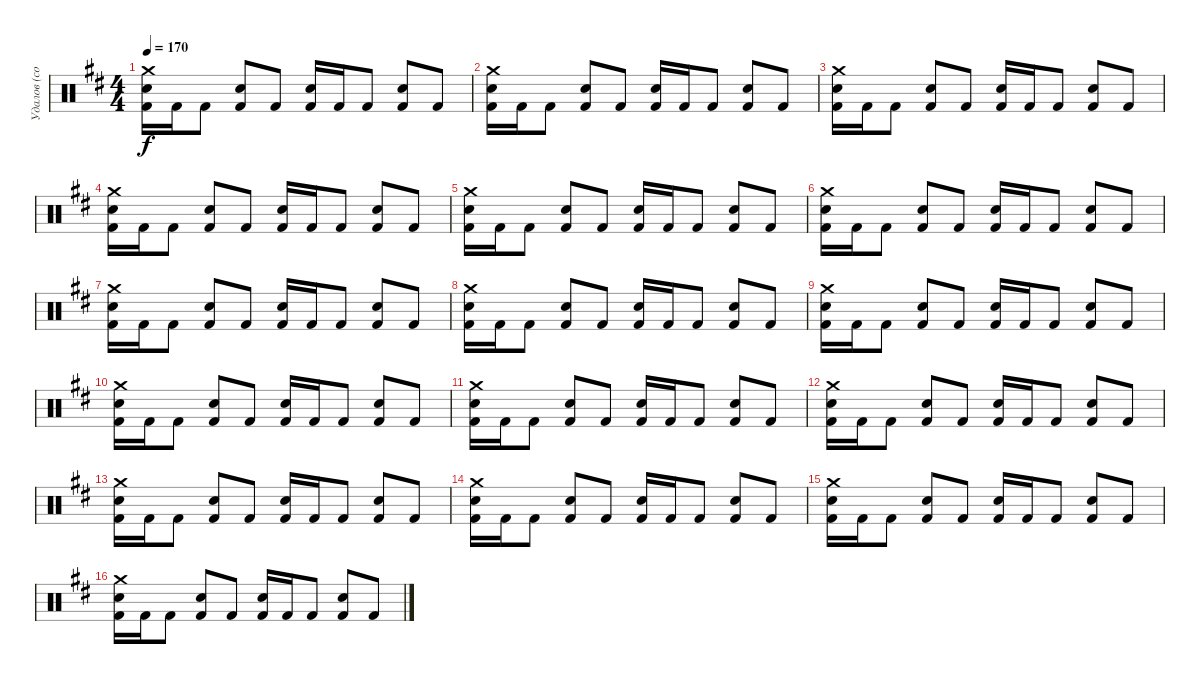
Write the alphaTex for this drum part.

\track ("Удалов (сорри за ударные)" "Удалов (со") {instrument percussion}
\staff {score}
\articulation defaults
\ts (4 4)
\tempo 170
\clef neutral
\ks d
("Crash medium (hit)" "Snare (hit) 2" "Kick (hit) 2").16{dy f} "Kick (hit) 2".16 "Kick (hit) 2".8 ("Snare (hit) 2" "Kick (hit) 2").8 "Kick (hit) 2".8 ("Snare (hit) 2" "Kick (hit) 2").16 "Kick (hit) 2".16 "Kick (hit) 2".8 ("Snare (hit) 2" "Kick (hit) 2").8 "Kick (hit) 2".8 |
("Crash medium (hit)" "Snare (hit) 2" "Kick (hit) 2").16 "Kick (hit) 2".16 "Kick (hit) 2".8 ("Snare (hit) 2" "Kick (hit) 2").8 "Kick (hit) 2".8 ("Snare (hit) 2" "Kick (hit) 2").16 "Kick (hit) 2".16 "Kick (hit) 2".8 ("Snare (hit) 2" "Kick (hit) 2").8 "Kick (hit) 2".8 |
("Crash medium (hit)" "Snare (hit) 2" "Kick (hit) 2").16 "Kick (hit) 2".16 "Kick (hit) 2".8 ("Snare (hit) 2" "Kick (hit) 2").8 "Kick (hit) 2".8 ("Snare (hit) 2" "Kick (hit) 2").16 "Kick (hit) 2".16 "Kick (hit) 2".8 ("Snare (hit) 2" "Kick (hit) 2").8 "Kick (hit) 2".8 |
("Crash medium (hit)" "Snare (hit) 2" "Kick (hit) 2").16 "Kick (hit) 2".16 "Kick (hit) 2".8 ("Snare (hit) 2" "Kick (hit) 2").8 "Kick (hit) 2".8 ("Snare (hit) 2" "Kick (hit) 2").16 "Kick (hit) 2".16 "Kick (hit) 2".8 ("Snare (hit) 2" "Kick (hit) 2").8 "Kick (hit) 2".8 |
("Crash medium (hit)" "Snare (hit) 2" "Kick (hit) 2").16 "Kick (hit) 2".16 "Kick (hit) 2".8 ("Snare (hit) 2" "Kick (hit) 2").8 "Kick (hit) 2".8 ("Snare (hit) 2" "Kick (hit) 2").16 "Kick (hit) 2".16 "Kick (hit) 2".8 ("Snare (hit) 2" "Kick (hit) 2").8 "Kick (hit) 2".8 |
("Crash medium (hit)" "Snare (hit) 2" "Kick (hit) 2").16 "Kick (hit) 2".16 "Kick (hit) 2".8 ("Snare (hit) 2" "Kick (hit) 2").8 "Kick (hit) 2".8 ("Snare (hit) 2" "Kick (hit) 2").16 "Kick (hit) 2".16 "Kick (hit) 2".8 ("Snare (hit) 2" "Kick (hit) 2").8 "Kick (hit) 2".8 |
("Crash medium (hit)" "Snare (hit) 2" "Kick (hit) 2").16 "Kick (hit) 2".16 "Kick (hit) 2".8 ("Snare (hit) 2" "Kick (hit) 2").8 "Kick (hit) 2".8 ("Snare (hit) 2" "Kick (hit) 2").16 "Kick (hit) 2".16 "Kick (hit) 2".8 ("Snare (hit) 2" "Kick (hit) 2").8 "Kick (hit) 2".8 |
("Crash medium (hit)" "Snare (hit) 2" "Kick (hit) 2").16 "Kick (hit) 2".16 "Kick (hit) 2".8 ("Snare (hit) 2" "Kick (hit) 2").8 "Kick (hit) 2".8 ("Snare (hit) 2" "Kick (hit) 2").16 "Kick (hit) 2".16 "Kick (hit) 2".8 ("Snare (hit) 2" "Kick (hit) 2").8 "Kick (hit) 2".8 |
("Crash medium (hit)" "Snare (hit) 2" "Kick (hit) 2").16 "Kick (hit) 2".16 "Kick (hit) 2".8 ("Snare (hit) 2" "Kick (hit) 2").8 "Kick (hit) 2".8 ("Snare (hit) 2" "Kick (hit) 2").16 "Kick (hit) 2".16 "Kick (hit) 2".8 ("Snare (hit) 2" "Kick (hit) 2").8 "Kick (hit) 2".8 |
("Crash medium (hit)" "Snare (hit) 2" "Kick (hit) 2").16 "Kick (hit) 2".16 "Kick (hit) 2".8 ("Snare (hit) 2" "Kick (hit) 2").8 "Kick (hit) 2".8 ("Snare (hit) 2" "Kick (hit) 2").16 "Kick (hit) 2".16 "Kick (hit) 2".8 ("Snare (hit) 2" "Kick (hit) 2").8 "Kick (hit) 2".8 |
("Crash medium (hit)" "Snare (hit) 2" "Kick (hit) 2").16 "Kick (hit) 2".16 "Kick (hit) 2".8 ("Snare (hit) 2" "Kick (hit) 2").8 "Kick (hit) 2".8 ("Snare (hit) 2" "Kick (hit) 2").16 "Kick (hit) 2".16 "Kick (hit) 2".8 ("Snare (hit) 2" "Kick (hit) 2").8 "Kick (hit) 2".8 |
("Crash medium (hit)" "Snare (hit) 2" "Kick (hit) 2").16 "Kick (hit) 2".16 "Kick (hit) 2".8 ("Snare (hit) 2" "Kick (hit) 2").8 "Kick (hit) 2".8 ("Snare (hit) 2" "Kick (hit) 2").16 "Kick (hit) 2".16 "Kick (hit) 2".8 ("Snare (hit) 2" "Kick (hit) 2").8 "Kick (hit) 2".8 |
("Crash medium (hit)" "Snare (hit) 2" "Kick (hit) 2").16 "Kick (hit) 2".16 "Kick (hit) 2".8 ("Snare (hit) 2" "Kick (hit) 2").8 "Kick (hit) 2".8 ("Snare (hit) 2" "Kick (hit) 2").16 "Kick (hit) 2".16 "Kick (hit) 2".8 ("Snare (hit) 2" "Kick (hit) 2").8 "Kick (hit) 2".8 |
("Crash medium (hit)" "Snare (hit) 2" "Kick (hit) 2").16 "Kick (hit) 2".16 "Kick (hit) 2".8 ("Snare (hit) 2" "Kick (hit) 2").8 "Kick (hit) 2".8 ("Snare (hit) 2" "Kick (hit) 2").16 "Kick (hit) 2".16 "Kick (hit) 2".8 ("Snare (hit) 2" "Kick (hit) 2").8 "Kick (hit) 2".8 |
("Crash medium (hit)" "Snare (hit) 2" "Kick (hit) 2").16 "Kick (hit) 2".16 "Kick (hit) 2".8 ("Snare (hit) 2" "Kick (hit) 2").8 "Kick (hit) 2".8 ("Snare (hit) 2" "Kick (hit) 2").16 "Kick (hit) 2".16 "Kick (hit) 2".8 ("Snare (hit) 2" "Kick (hit) 2").8 "Kick (hit) 2".8 |
("Crash medium (hit)" "Snare (hit) 2" "Kick (hit) 2").16 "Kick (hit) 2".16 "Kick (hit) 2".8 ("Snare (hit) 2" "Kick (hit) 2").8 "Kick (hit) 2".8 ("Snare (hit) 2" "Kick (hit) 2").16 "Kick (hit) 2".16 "Kick (hit) 2".8 ("Snare (hit) 2" "Kick (hit) 2").8 "Kick (hit) 2".8
